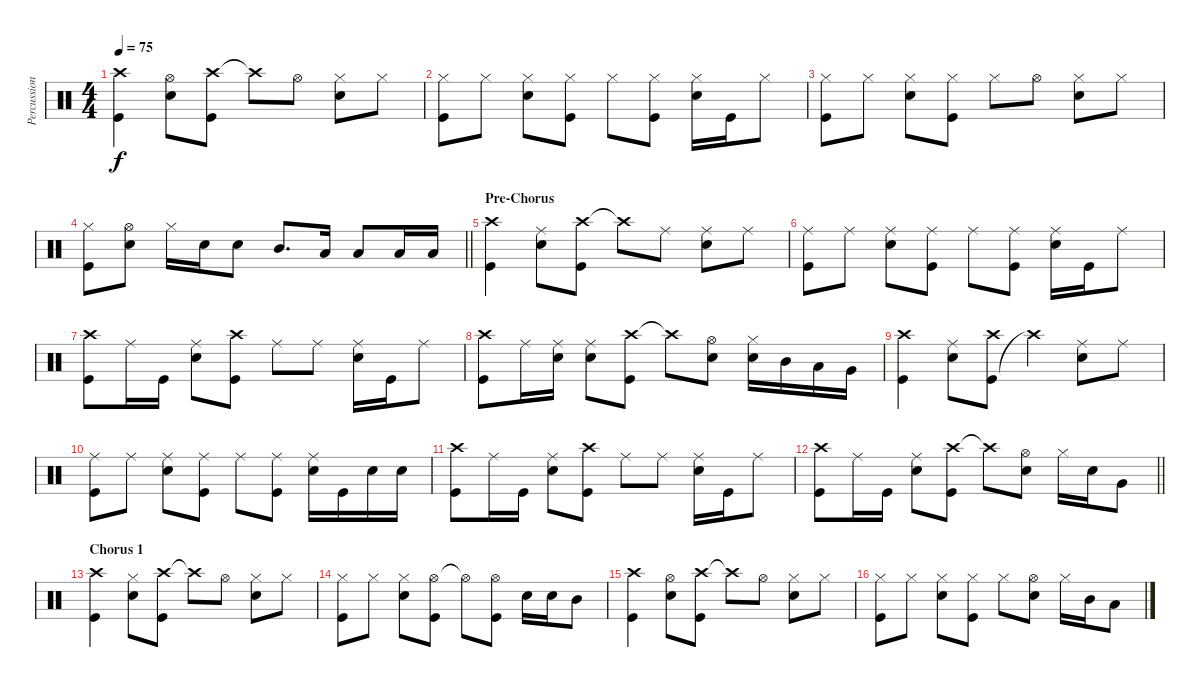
\track ("Percussion 1" "Percussion") {instrument percussion}
\staff {score}
\articulation defaults
\ts (4 4)
\tempo 75
\clef neutral
\ks c
("Crash high (hit)" "Kick (hit)").4{dy f} ("Hi-Hat (open)" "Snare (hit) 2").8 ("Crash high (hit)" "Kick (hit)").8 "Crash high (hit)"{t}.8 "Hi-Hat (open)".8 ("Hi-Hat (closed)" "Snare (hit) 2").8 "Hi-Hat (closed)".8 |
("Kick (hit)" "Hi-Hat (closed)").8 "Hi-Hat (closed)".8 ("Hi-Hat (closed)" "Snare (hit) 2").8 ("Hi-Hat (closed)" "Kick (hit)").8 "Hi-Hat (closed)".8 ("Hi-Hat (closed)" "Kick (hit)").8 ("Hi-Hat (closed)" "Snare (hit) 2").16 "Kick (hit)".16 "Hi-Hat (closed)".8 |
("Hi-Hat (closed)" "Kick (hit)").8 "Hi-Hat (closed)".8 ("Hi-Hat (closed)" "Snare (hit) 2").8 ("Hi-Hat (closed)" "Kick (hit)").8 "Hi-Hat (closed)".8 "Hi-Hat (open)".8 ("Hi-Hat (closed)" "Snare (hit) 2").8 "Hi-Hat (closed)".8 |
\barLineRight lightlight
("Kick (hit)" "Hi-Hat (closed)").8 ("Snare (hit) 2" "Hi-Hat (open)").8 "Hi-Hat (closed)".16 "Snare (hit) 2".16 "Snare (hit) 2".8 "Mid Tom (hit)".8{d} "Low Tom (hit)".16 "Low Tom (hit)".8 "Low Floor Tom (hit)".16 "Low Floor Tom (hit)".16 |
\section ("" "Pre-Chorus")
("Crash high (hit)" "Kick (hit)").4 ("Ride (middle)" "Snare (hit) 2").8 ("Crash high (hit)" "Kick (hit)").8 "Crash high (hit)"{t}.8 "Ride (middle)".8 ("Ride (middle)" "Snare (hit) 2").8 "Ride (middle)".8 |
("Kick (hit)" "Ride (middle)").8 "Ride (middle)".8 ("Ride (middle)" "Snare (hit) 2").8 ("Ride (middle)" "Kick (hit)").8 "Ride (middle)".8 ("Ride (middle)" "Kick (hit)").8 ("Ride (middle)" "Snare (hit) 2").16 "Kick (hit)".16 "Ride (middle)".8 |
("Kick (hit)" "Crash high (hit)").8 "Ride (middle)".16 "Kick (hit)".16 ("Snare (hit) 2" "Ride (middle)").8 ("Crash high (hit)" "Kick (hit)").8 "Ride (middle)".8 "Ride (middle)".8 ("Ride (middle)" "Snare (hit) 2").16 "Kick (hit)".16 "Ride (middle)".8 |
("Crash high (hit)" "Kick (hit)").8 "Ride (middle)".16 ("Ride (middle)" "Snare (hit) 2").16 ("Ride (middle)" "Snare (hit) 2").8 ("Crash high (hit)" "Kick (hit)").8 "Crash high (hit)"{t}.8 ("Hi-Hat (open)" "Snare (hit) 2").8 ("Hi-Hat (closed)" "Snare (hit) 2").16 "Mid Tom (hit)".16 "Low Tom (hit)".16 "Very Low Tom (hit)".16 |
("Kick (hit)" "Crash high (hit)").4 ("Ride (middle)" "Snare (hit) 2").8 ("Kick (hit)" "Crash high (hit)").8 "Crash high (hit)"{t}.4 ("Ride (middle)" "Snare (hit) 2").8 "Ride (middle)".8 |
("Ride (middle)" "Kick (hit)").8 "Ride (middle)".8 ("Snare (hit) 2" "Ride (middle)").8 ("Ride (middle)" "Kick (hit)").8 "Ride (middle)".8 ("Ride (middle)" "Kick (hit)").8 ("Ride (middle)" "Snare (hit) 2").16 "Kick (hit)".16 "Snare (hit) 2".16 "Snare (hit) 2".16 |
("Crash high (hit)" "Kick (hit)").8 "Ride (middle)".16 "Kick (hit)".16 ("Ride (middle)" "Snare (hit) 2").8 ("Crash high (hit)" "Kick (hit)").8 "Ride (middle)".8 "Ride (middle)".8 ("Ride (middle)" "Snare (hit) 2").16 "Kick (hit)".16 "Ride (middle)".8 |
\barLineRight lightlight
("Crash high (hit)" "Kick (hit)").8 "Ride (middle)".16 "Kick (hit)".16 ("Ride (middle)" "Snare (hit) 2").8 ("Crash high (hit)" "Kick (hit)").8 "Crash high (hit)"{t}.8 ("Hi-Hat (open)" "Snare (hit) 2").8 "Hi-Hat (closed)".16 "Snare (hit) 2".16 "Very Low Tom (hit)".8 |
\section ("" "Chorus 1")
("Kick (hit)" "Crash high (hit)").4 ("Hi-Hat (closed)" "Snare (hit) 2").8 ("Crash high (hit)" "Kick (hit)").8 "Crash high (hit)"{t}.8 "Hi-Hat (open)".8 ("Hi-Hat (closed)" "Snare (hit) 2").8 "Hi-Hat (closed)".8 |
("Hi-Hat (closed)" "Kick (hit)").8 "Hi-Hat (closed)".8 ("Hi-Hat (closed)" "Snare (hit) 2").8 ("Hi-Hat (open)" "Kick (hit)").8 "Hi-Hat (open)"{t}.8 ("Hi-Hat (open)" "Kick (hit)").8 "Snare (hit) 2".16 "Snare (hit) 2".16 "Mid Tom (hit)".8 |
("Crash high (hit)" "Kick (hit)").4 ("Hi-Hat (open)" "Snare (hit) 2").8 ("Crash high (hit)" "Kick (hit)").8 "Crash high (hit)"{t}.8 "Hi-Hat (open)".8 ("Hi-Hat (closed)" "Snare (hit) 2").8 "Hi-Hat (closed)".8 |
("Hi-Hat (closed)" "Kick (hit)").8 "Hi-Hat (closed)".8 ("Hi-Hat (closed)" "Snare (hit) 2").8 ("Hi-Hat (closed)" "Kick (hit)").8 "Hi-Hat (closed)".8 ("Hi-Hat (open)" "Snare (hit) 2").8 "Hi-Hat (closed)".16 "Mid Tom (hit)".16 "Low Tom (hit)".8
